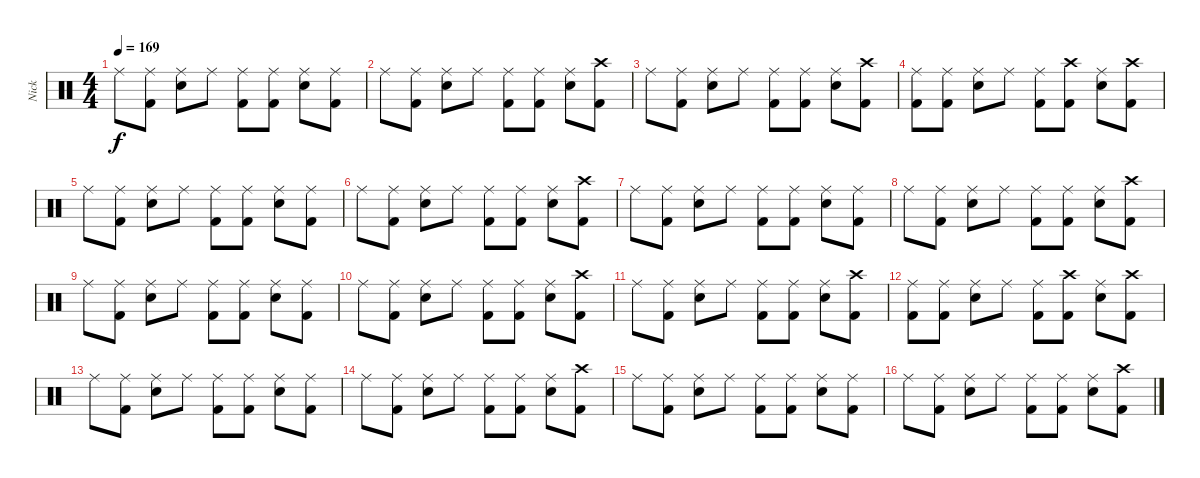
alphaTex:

\track ("Nick" "Nick") {instrument percussion}
\staff {score}
\articulation defaults
\ts (4 4)
\tempo 169
\clef neutral
\ks c "Ride (middle)".8{dy f}
("Ride (middle)" "Kick (hit) 2").8 ("Ride (middle)" "Snare (hit) 2").8 "Ride (middle)".8 ("Ride (middle)" "Kick (hit) 2").8 ("Ride (middle)" "Kick (hit) 2").8 ("Ride (middle)" "Snare (hit) 2").8 ("Ride (middle)" "Kick (hit) 2").8 |
"Ride (middle)".8 ("Ride (middle)" "Kick (hit) 2").8 ("Ride (middle)" "Snare (hit) 2").8 "Ride (middle)".8 ("Ride (middle)" "Kick (hit) 2").8 ("Ride (middle)" "Kick (hit) 2").8 ("Ride (middle)" "Snare (hit) 2").8 ("Crash high (hit)" "Kick (hit) 2").8 |
"Ride (middle)".8 ("Ride (middle)" "Kick (hit) 2").8 ("Ride (middle)" "Snare (hit) 2").8 "Ride (middle)".8 ("Ride (middle)" "Kick (hit) 2").8 ("Ride (middle)" "Kick (hit) 2").8 ("Ride (middle)" "Snare (hit) 2").8 ("Crash high (hit)" "Kick (hit) 2").8 |
("Ride (middle)" "Kick (hit) 2").8 ("Ride (middle)" "Kick (hit) 2").8 ("Ride (middle)" "Snare (hit) 2").8 "Ride (middle)".8 ("Ride (middle)" "Kick (hit) 2").8 ("Crash high (hit)" "Kick (hit) 2").8 ("Ride (middle)" "Snare (hit) 2").8 ("Crash high (hit)" "Kick (hit) 2").8 |
"Ride (middle)".8 ("Ride (middle)" "Kick (hit) 2").8 ("Ride (middle)" "Snare (hit) 2").8 "Ride (middle)".8 ("Ride (middle)" "Kick (hit) 2").8 ("Ride (middle)" "Kick (hit) 2").8 ("Ride (middle)" "Snare (hit) 2").8 ("Ride (middle)" "Kick (hit) 2").8 |
"Ride (middle)".8 ("Ride (middle)" "Kick (hit) 2").8 ("Ride (middle)" "Snare (hit) 2").8 "Ride (middle)".8 ("Ride (middle)" "Kick (hit) 2").8 ("Ride (middle)" "Kick (hit) 2").8 ("Ride (middle)" "Snare (hit) 2").8 ("Crash high (hit)" "Kick (hit) 2").8 |
"Ride (middle)".8 ("Ride (middle)" "Kick (hit) 2").8 ("Ride (middle)" "Snare (hit) 2").8 "Ride (middle)".8 ("Ride (middle)" "Kick (hit) 2").8 ("Ride (middle)" "Kick (hit) 2").8 ("Ride (middle)" "Snare (hit) 2").8 ("Ride (middle)" "Kick (hit) 2").8 |
"Ride (middle)".8 ("Ride (middle)" "Kick (hit) 2").8 ("Ride (middle)" "Snare (hit) 2").8 "Ride (middle)".8 ("Ride (middle)" "Kick (hit) 2").8 ("Ride (middle)" "Kick (hit) 2").8 ("Ride (middle)" "Snare (hit) 2").8 ("Crash high (hit)" "Kick (hit) 2").8 |
"Ride (middle)".8 ("Ride (middle)" "Kick (hit) 2").8 ("Ride (middle)" "Snare (hit) 2").8 "Ride (middle)".8 ("Ride (middle)" "Kick (hit) 2").8 ("Ride (middle)" "Kick (hit) 2").8 ("Ride (middle)" "Snare (hit) 2").8 ("Ride (middle)" "Kick (hit) 2").8 |
"Ride (middle)".8 ("Ride (middle)" "Kick (hit) 2").8 ("Ride (middle)" "Snare (hit) 2").8 "Ride (middle)".8 ("Ride (middle)" "Kick (hit) 2").8 ("Ride (middle)" "Kick (hit) 2").8 ("Ride (middle)" "Snare (hit) 2").8 ("Crash high (hit)" "Kick (hit) 2").8 |
"Ride (middle)".8 ("Ride (middle)" "Kick (hit) 2").8 ("Ride (middle)" "Snare (hit) 2").8 "Ride (middle)".8 ("Ride (middle)" "Kick (hit) 2").8 ("Ride (middle)" "Kick (hit) 2").8 ("Ride (middle)" "Snare (hit) 2").8 ("Crash high (hit)" "Kick (hit) 2").8 |
("Ride (middle)" "Kick (hit) 2").8 ("Ride (middle)" "Kick (hit) 2").8 ("Ride (middle)" "Snare (hit) 2").8 "Ride (middle)".8 ("Ride (middle)" "Kick (hit) 2").8 ("Crash high (hit)" "Kick (hit) 2").8 ("Ride (middle)" "Snare (hit) 2").8 ("Crash high (hit)" "Kick (hit) 2").8 |
"Ride (middle)".8 ("Ride (middle)" "Kick (hit) 2").8 ("Ride (middle)" "Snare (hit) 2").8 "Ride (middle)".8 ("Ride (middle)" "Kick (hit) 2").8 ("Ride (middle)" "Kick (hit) 2").8 ("Ride (middle)" "Snare (hit) 2").8 ("Ride (middle)" "Kick (hit) 2").8 |
"Ride (middle)".8 ("Ride (middle)" "Kick (hit) 2").8 ("Ride (middle)" "Snare (hit) 2").8 "Ride (middle)".8 ("Ride (middle)" "Kick (hit) 2").8 ("Ride (middle)" "Kick (hit) 2").8 ("Ride (middle)" "Snare (hit) 2").8 ("Crash high (hit)" "Kick (hit) 2").8 |
"Ride (middle)".8 ("Ride (middle)" "Kick (hit) 2").8 ("Ride (middle)" "Snare (hit) 2").8 "Ride (middle)".8 ("Ride (middle)" "Kick (hit) 2").8 ("Ride (middle)" "Kick (hit) 2").8 ("Ride (middle)" "Snare (hit) 2").8 ("Ride (middle)" "Kick (hit) 2").8 |
"Ride (middle)".8 ("Ride (middle)" "Kick (hit) 2").8 ("Ride (middle)" "Snare (hit) 2").8 "Ride (middle)".8 ("Ride (middle)" "Kick (hit) 2").8 ("Ride (middle)" "Kick (hit) 2").8 ("Ride (middle)" "Snare (hit) 2").8 ("Crash high (hit)" "Kick (hit) 2").8
